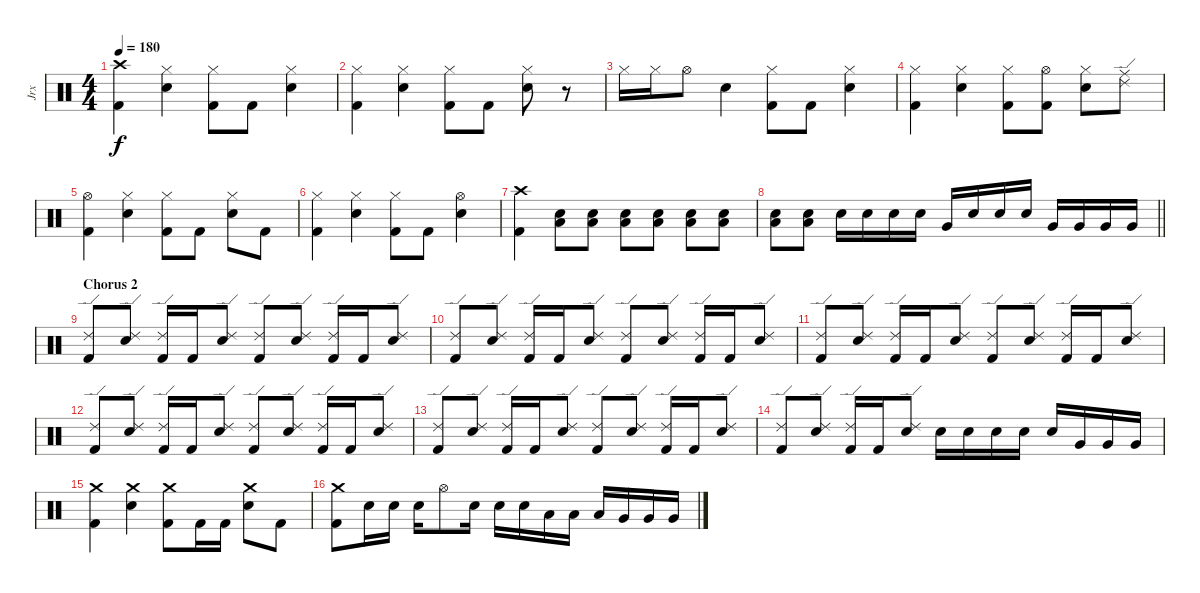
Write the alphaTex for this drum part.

\track ("Jrx" "Jrx") {instrument percussion}
\staff {score}
\articulation defaults
\ts (4 4)
\tempo 180
\clef neutral
\ks c
("Kick (hit) 2" "Crash high (hit)").4{dy f} ("Electric Snare (hit)" "Hi-Hat (closed)").4 ("Kick (hit) 2" "Hi-Hat (closed)").8 "Kick (hit) 2".8 ("Electric Snare (hit)" "Hi-Hat (closed)").4 |
("Kick (hit) 2" "Hi-Hat (closed)").4 ("Electric Snare (hit)" "Hi-Hat (closed)").4 ("Kick (hit) 2" "Hi-Hat (closed)").8 "Kick (hit) 2".8 ("Electric Snare (hit)" "Hi-Hat (closed)").8 r.8 |
"Hi-Hat (closed)".16 "Hi-Hat (closed)".16 "Hi-Hat (open)".8 "Electric Snare (hit)".4 ("Kick (hit) 2" "Hi-Hat (closed)").8 "Kick (hit) 2".8 ("Electric Snare (hit)" "Hi-Hat (closed)").4 |
("Kick (hit) 2" "Hi-Hat (closed)").4 ("Electric Snare (hit)" "Hi-Hat (closed)").4 ("Kick (hit) 2" "Hi-Hat (closed)").8 ("Kick (hit) 2" "Hi-Hat (open)").8 ("Electric Snare (hit)" "Hi-Hat (closed)").8 ("Ride (edge) 2" "Ride (middle)").8 |
("Kick (hit) 2" "Hi-Hat (open)").4 ("Electric Snare (hit)" "Hi-Hat (closed)").4 ("Kick (hit) 2" "Hi-Hat (closed)").8 "Kick (hit) 2".8 ("Electric Snare (hit)" "Hi-Hat (closed)").8 "Kick (hit) 2".8 |
("Kick (hit) 2" "Hi-Hat (closed)").4 ("Electric Snare (hit)" "Hi-Hat (closed)").4 ("Kick (hit) 2" "Hi-Hat (closed)").8 "Kick (hit) 2".8 ("Electric Snare (hit)" "Hi-Hat (open)").4 |
("Kick (hit) 2" "Crash high (hit)").4 ("Electric Snare (hit)" "Low Floor Tom (hit)").8 ("Electric Snare (hit)" "Low Floor Tom (hit)").8 ("Electric Snare (hit)" "Low Floor Tom (hit)").8 ("Electric Snare (hit)" "Low Floor Tom (hit)").8 ("Electric Snare (hit)" "Low Floor Tom (hit)").8 ("Electric Snare (hit)" "Low Floor Tom (hit)").8 |
\barLineRight lightlight
("Electric Snare (hit)" "Low Floor Tom (hit)").8 ("Electric Snare (hit)" "Low Floor Tom (hit)").8 "Electric Snare (hit)".16 "Electric Snare (hit)".16 "Electric Snare (hit)".16 "Electric Snare (hit)".16 "Very Low Tom (hit)".16 "Electric Snare (hit)".16 "Electric Snare (hit)".16 "Electric Snare (hit)".16 "Very Low Tom (hit)".16 "Very Low Tom (hit)".16 "Very Low Tom (hit)".16 "Very Low Tom (hit)".16 |
\section ("" "Chorus 2")
("Kick (hit) 2" "Ride (edge) 2").8 ("Electric Snare (hit)" "Ride (edge) 2").8 ("Kick (hit) 2" "Ride (edge) 2").16 "Kick (hit) 2".16 ("Electric Snare (hit)" "Ride (edge) 2").8 ("Kick (hit) 2" "Ride (edge) 2").8 ("Electric Snare (hit)" "Ride (edge) 2").8 ("Kick (hit) 2" "Ride (edge) 2").16 "Kick (hit) 2".16 ("Electric Snare (hit)" "Ride (edge) 2").8 |
("Kick (hit) 2" "Ride (edge) 2").8 ("Electric Snare (hit)" "Ride (edge) 2").8 ("Kick (hit) 2" "Ride (edge) 2").16 "Kick (hit) 2".16 ("Electric Snare (hit)" "Ride (edge) 2").8 ("Kick (hit) 2" "Ride (edge) 2").8 ("Electric Snare (hit)" "Ride (edge) 2").8 ("Kick (hit) 2" "Ride (edge) 2").16 "Kick (hit) 2".16 ("Electric Snare (hit)" "Ride (edge) 2").8 |
("Kick (hit) 2" "Ride (edge) 2").8 ("Electric Snare (hit)" "Ride (edge) 2").8 ("Kick (hit) 2" "Ride (edge) 2").16 "Kick (hit) 2".16 ("Electric Snare (hit)" "Ride (edge) 2").8 ("Kick (hit) 2" "Ride (edge) 2").8 ("Electric Snare (hit)" "Ride (edge) 2").8 ("Kick (hit) 2" "Ride (edge) 2").16 "Kick (hit) 2".16 ("Electric Snare (hit)" "Ride (edge) 2").8 |
("Kick (hit) 2" "Ride (edge) 2").8 ("Electric Snare (hit)" "Ride (edge) 2").8 ("Kick (hit) 2" "Ride (edge) 2").16 "Kick (hit) 2".16 ("Electric Snare (hit)" "Ride (edge) 2").8 ("Kick (hit) 2" "Ride (edge) 2").8 ("Electric Snare (hit)" "Ride (edge) 2").8 ("Kick (hit) 2" "Ride (edge) 2").16 "Kick (hit) 2".16 ("Electric Snare (hit)" "Ride (edge) 2").8 |
("Kick (hit) 2" "Ride (edge) 2").8 ("Electric Snare (hit)" "Ride (edge) 2").8 ("Kick (hit) 2" "Ride (edge) 2").16 "Kick (hit) 2".16 ("Electric Snare (hit)" "Ride (edge) 2").8 ("Kick (hit) 2" "Ride (edge) 2").8 ("Electric Snare (hit)" "Ride (edge) 2").8 ("Kick (hit) 2" "Ride (edge) 2").16 "Kick (hit) 2".16 ("Electric Snare (hit)" "Ride (edge) 2").8 |
("Kick (hit) 2" "Ride (edge) 2").8 ("Electric Snare (hit)" "Ride (edge) 2").8 ("Kick (hit) 2" "Ride (edge) 2").16 "Kick (hit) 2".16 ("Electric Snare (hit)" "Ride (edge) 2").8 "Electric Snare (hit)".16 "Electric Snare (hit)".16 "Electric Snare (hit)".16 "Electric Snare (hit)".16 "Electric Snare (hit)".16 "Very Low Tom (hit)".16 "Very Low Tom (hit)".16 "Very Low Tom (hit)".16 |
("Kick (hit) 2" "Crash medium (hit)").4 ("Electric Snare (hit)" "Crash medium (hit)").4 ("Kick (hit) 2" "Crash medium (hit)").8 "Kick (hit) 2".16 "Kick (hit) 2".16 ("Electric Snare (hit)" "Crash medium (hit)").8 "Kick (hit) 2".8 |
("Kick (hit) 2" "Crash medium (hit)").8 "Electric Snare (hit)".16 "Electric Snare (hit)".16 "Electric Snare (hit)".16 "Hi-Hat (open)".8 "Electric Snare (hit)".16 "Electric Snare (hit)".16 "Electric Snare (hit)".16 "Low Tom (hit)".16 "Low Tom (hit)".16 "Low Tom (hit)".16 "Very Low Tom (hit)".16 "Very Low Tom (hit)".16 "Very Low Tom (hit)".16
